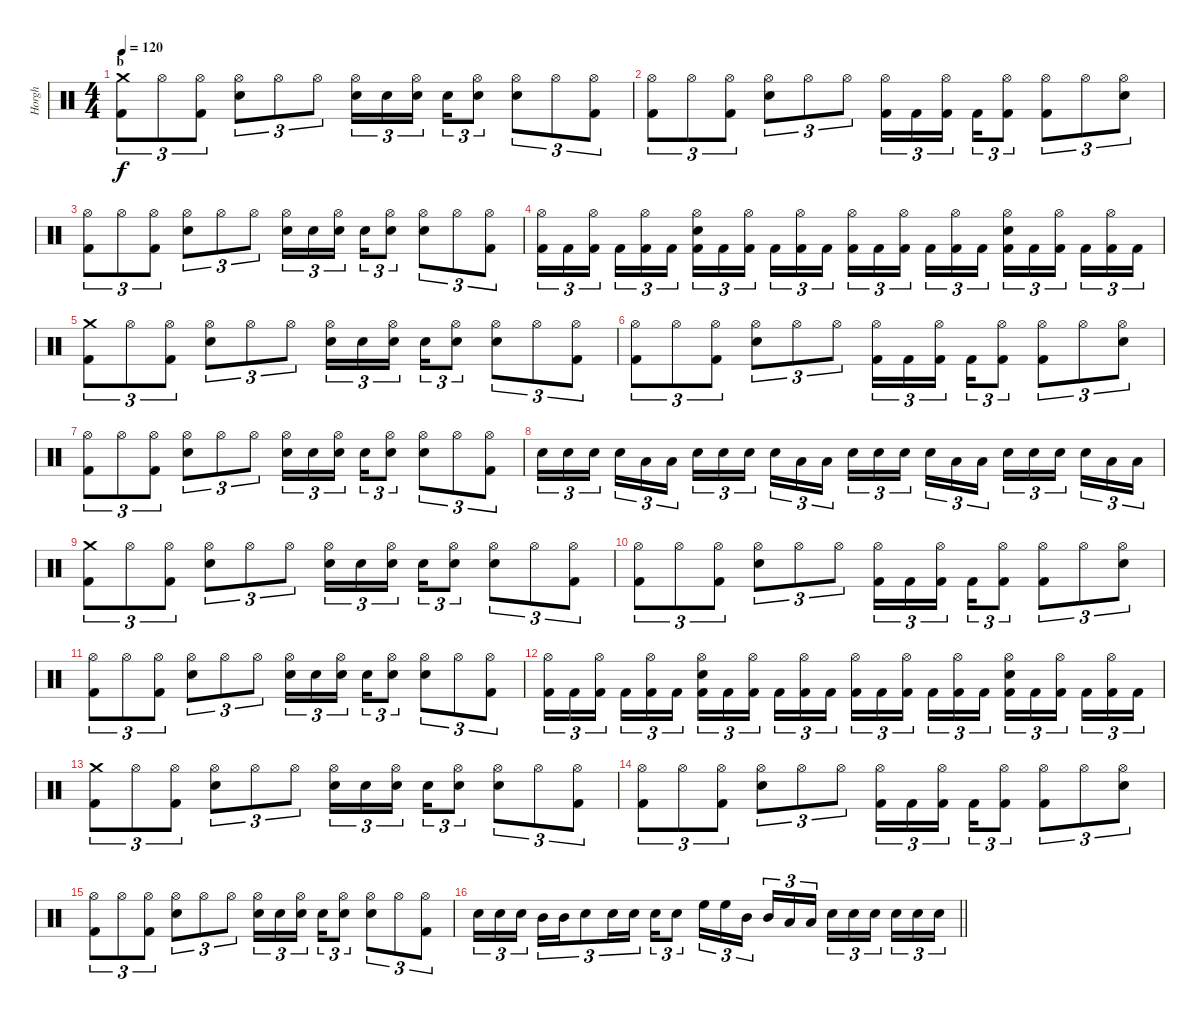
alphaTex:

\track ("Horgh" "Horgh") {instrument percussion}
\staff {score}
\articulation defaults
\ts (4 4)
\section ("" "b")
\tempo 120
\clef neutral
\ks c
("Crash medium (hit)" "Kick (hit) 2").8{tu (3 2) dy f} "Hi-Hat (open)".8{tu (3 2)} ("Hi-Hat (open)" "Kick (hit) 2").8{tu (3 2)} ("Hi-Hat (open)" "Electric Snare (hit)").8{tu (3 2)} "Hi-Hat (open)".8{tu (3 2)} "Hi-Hat (open)".8{tu (3 2)} ("Hi-Hat (open)" "Electric Snare (hit)").16{tu (3 2)} "Electric Snare (hit)".16{tu (3 2)} ("Hi-Hat (open)" "Electric Snare (hit)").16{tu (3 2) beam splitsecondary} "Electric Snare (hit)".16{tu (3 2)} ("Hi-Hat (open)" "Electric Snare (hit)").8{tu (3 2)} ("Hi-Hat (open)" "Electric Snare (hit)").8{tu (3 2)} "Hi-Hat (open)".8{tu (3 2)} ("Hi-Hat (open)" "Kick (hit) 2").8{tu (3 2)} |
("Hi-Hat (open)" "Kick (hit) 2").8{tu (3 2)} "Hi-Hat (open)".8{tu (3 2)} ("Hi-Hat (open)" "Kick (hit) 2").8{tu (3 2)} ("Hi-Hat (open)" "Electric Snare (hit)").8{tu (3 2)} "Hi-Hat (open)".8{tu (3 2)} "Hi-Hat (open)".8{tu (3 2)} ("Hi-Hat (open)" "Kick (hit) 2").16{tu (3 2)} "Kick (hit) 2".16{tu (3 2)} ("Hi-Hat (open)" "Kick (hit) 2").16{tu (3 2) beam splitsecondary} "Kick (hit) 2".16{tu (3 2)} ("Hi-Hat (open)" "Kick (hit) 2").8{tu (3 2)} ("Hi-Hat (open)" "Kick (hit) 2").8{tu (3 2)} "Hi-Hat (open)".8{tu (3 2)} ("Hi-Hat (open)" "Electric Snare (hit)").8{tu (3 2)} |
("Hi-Hat (open)" "Kick (hit) 2").8{tu (3 2)} "Hi-Hat (open)".8{tu (3 2)} ("Hi-Hat (open)" "Kick (hit) 2").8{tu (3 2)} ("Hi-Hat (open)" "Electric Snare (hit)").8{tu (3 2)} "Hi-Hat (open)".8{tu (3 2)} "Hi-Hat (open)".8{tu (3 2)} ("Hi-Hat (open)" "Electric Snare (hit)").16{tu (3 2)} "Electric Snare (hit)".16{tu (3 2)} ("Hi-Hat (open)" "Electric Snare (hit)").16{tu (3 2) beam splitsecondary} "Electric Snare (hit)".16{tu (3 2)} ("Hi-Hat (open)" "Electric Snare (hit)").8{tu (3 2)} ("Hi-Hat (open)" "Electric Snare (hit)").8{tu (3 2)} "Hi-Hat (open)".8{tu (3 2)} ("Hi-Hat (open)" "Kick (hit) 2").8{tu (3 2)} |
("Hi-Hat (open)" "Kick (hit) 2").16{tu (3 2)} "Kick (hit) 2".16{tu (3 2)} ("Hi-Hat (open)" "Kick (hit) 2").16{tu (3 2) beam splitsecondary} "Kick (hit) 2".16{tu (3 2)} ("Hi-Hat (open)" "Kick (hit) 2").16{tu (3 2)} "Kick (hit) 2".16{tu (3 2)} ("Hi-Hat (open)" "Electric Snare (hit)" "Kick (hit) 2").16{tu (3 2)} "Kick (hit) 2".16{tu (3 2)} ("Hi-Hat (open)" "Kick (hit) 2").16{tu (3 2) beam splitsecondary} "Kick (hit) 2".16{tu (3 2)} ("Hi-Hat (open)" "Kick (hit) 2").16{tu (3 2)} "Kick (hit) 2".16{tu (3 2)} ("Hi-Hat (open)" "Kick (hit) 2").16{tu (3 2)} "Kick (hit) 2".16{tu (3 2)} ("Hi-Hat (open)" "Kick (hit) 2").16{tu (3 2) beam splitsecondary} "Kick (hit) 2".16{tu (3 2)} ("Hi-Hat (open)" "Kick (hit) 2").16{tu (3 2)} "Kick (hit) 2".16{tu (3 2)} ("Hi-Hat (open)" "Electric Snare (hit)" "Kick (hit) 2").16{tu (3 2)} "Kick (hit) 2".16{tu (3 2)} ("Hi-Hat (open)" "Kick (hit) 2").16{tu (3 2) beam splitsecondary} "Kick (hit) 2".16{tu (3 2)} ("Hi-Hat (open)" "Kick (hit) 2").16{tu (3 2)} "Kick (hit) 2".16{tu (3 2)} |
("Crash medium (hit)" "Kick (hit) 2").8{tu (3 2)} "Hi-Hat (open)".8{tu (3 2)} ("Hi-Hat (open)" "Kick (hit) 2").8{tu (3 2)} ("Hi-Hat (open)" "Electric Snare (hit)").8{tu (3 2)} "Hi-Hat (open)".8{tu (3 2)} "Hi-Hat (open)".8{tu (3 2)} ("Hi-Hat (open)" "Electric Snare (hit)").16{tu (3 2)} "Electric Snare (hit)".16{tu (3 2)} ("Hi-Hat (open)" "Electric Snare (hit)").16{tu (3 2) beam splitsecondary} "Electric Snare (hit)".16{tu (3 2)} ("Hi-Hat (open)" "Electric Snare (hit)").8{tu (3 2)} ("Hi-Hat (open)" "Electric Snare (hit)").8{tu (3 2)} "Hi-Hat (open)".8{tu (3 2)} ("Hi-Hat (open)" "Kick (hit) 2").8{tu (3 2)} |
("Hi-Hat (open)" "Kick (hit) 2").8{tu (3 2)} "Hi-Hat (open)".8{tu (3 2)} ("Hi-Hat (open)" "Kick (hit) 2").8{tu (3 2)} ("Hi-Hat (open)" "Electric Snare (hit)").8{tu (3 2)} "Hi-Hat (open)".8{tu (3 2)} "Hi-Hat (open)".8{tu (3 2)} ("Hi-Hat (open)" "Kick (hit) 2").16{tu (3 2)} "Kick (hit) 2".16{tu (3 2)} ("Hi-Hat (open)" "Kick (hit) 2").16{tu (3 2) beam splitsecondary} "Kick (hit) 2".16{tu (3 2)} ("Hi-Hat (open)" "Kick (hit) 2").8{tu (3 2)} ("Hi-Hat (open)" "Kick (hit) 2").8{tu (3 2)} "Hi-Hat (open)".8{tu (3 2)} ("Hi-Hat (open)" "Electric Snare (hit)").8{tu (3 2)} |
("Hi-Hat (open)" "Kick (hit) 2").8{tu (3 2)} "Hi-Hat (open)".8{tu (3 2)} ("Hi-Hat (open)" "Kick (hit) 2").8{tu (3 2)} ("Hi-Hat (open)" "Electric Snare (hit)").8{tu (3 2)} "Hi-Hat (open)".8{tu (3 2)} "Hi-Hat (open)".8{tu (3 2)} ("Hi-Hat (open)" "Electric Snare (hit)").16{tu (3 2)} "Electric Snare (hit)".16{tu (3 2)} ("Hi-Hat (open)" "Electric Snare (hit)").16{tu (3 2) beam splitsecondary} "Electric Snare (hit)".16{tu (3 2)} ("Hi-Hat (open)" "Electric Snare (hit)").8{tu (3 2)} ("Hi-Hat (open)" "Electric Snare (hit)").8{tu (3 2)} "Hi-Hat (open)".8{tu (3 2)} ("Hi-Hat (open)" "Kick (hit) 2").8{tu (3 2)} |
"Electric Snare (hit)".16{tu (3 2)} "Electric Snare (hit)".16{tu (3 2)} "Electric Snare (hit)".16{tu (3 2) beam splitsecondary} "Electric Snare (hit)".16{tu (3 2)} "Low Tom (hit)".16{tu (3 2)} "Low Tom (hit)".16{tu (3 2)} "Electric Snare (hit)".16{tu (3 2)} "Electric Snare (hit)".16{tu (3 2)} "Electric Snare (hit)".16{tu (3 2) beam splitsecondary} "Electric Snare (hit)".16{tu (3 2)} "Low Tom (hit)".16{tu (3 2)} "Low Tom (hit)".16{tu (3 2)} "Electric Snare (hit)".16{tu (3 2)} "Electric Snare (hit)".16{tu (3 2)} "Electric Snare (hit)".16{tu (3 2) beam splitsecondary} "Electric Snare (hit)".16{tu (3 2)} "Low Tom (hit)".16{tu (3 2)} "Low Tom (hit)".16{tu (3 2)} "Electric Snare (hit)".16{tu (3 2)} "Electric Snare (hit)".16{tu (3 2)} "Electric Snare (hit)".16{tu (3 2) beam splitsecondary} "Electric Snare (hit)".16{tu (3 2)} "Low Tom (hit)".16{tu (3 2)} "Low Tom (hit)".16{tu (3 2)} |
("Crash medium (hit)" "Kick (hit) 2").8{tu (3 2)} "Hi-Hat (open)".8{tu (3 2)} ("Hi-Hat (open)" "Kick (hit) 2").8{tu (3 2)} ("Hi-Hat (open)" "Electric Snare (hit)").8{tu (3 2)} "Hi-Hat (open)".8{tu (3 2)} "Hi-Hat (open)".8{tu (3 2)} ("Hi-Hat (open)" "Electric Snare (hit)").16{tu (3 2)} "Electric Snare (hit)".16{tu (3 2)} ("Hi-Hat (open)" "Electric Snare (hit)").16{tu (3 2) beam splitsecondary} "Electric Snare (hit)".16{tu (3 2)} ("Hi-Hat (open)" "Electric Snare (hit)").8{tu (3 2)} ("Hi-Hat (open)" "Electric Snare (hit)").8{tu (3 2)} "Hi-Hat (open)".8{tu (3 2)} ("Hi-Hat (open)" "Kick (hit) 2").8{tu (3 2)} |
("Hi-Hat (open)" "Kick (hit) 2").8{tu (3 2)} "Hi-Hat (open)".8{tu (3 2)} ("Hi-Hat (open)" "Kick (hit) 2").8{tu (3 2)} ("Hi-Hat (open)" "Electric Snare (hit)").8{tu (3 2)} "Hi-Hat (open)".8{tu (3 2)} "Hi-Hat (open)".8{tu (3 2)} ("Hi-Hat (open)" "Kick (hit) 2").16{tu (3 2)} "Kick (hit) 2".16{tu (3 2)} ("Hi-Hat (open)" "Kick (hit) 2").16{tu (3 2) beam splitsecondary} "Kick (hit) 2".16{tu (3 2)} ("Hi-Hat (open)" "Kick (hit) 2").8{tu (3 2)} ("Hi-Hat (open)" "Kick (hit) 2").8{tu (3 2)} "Hi-Hat (open)".8{tu (3 2)} ("Hi-Hat (open)" "Electric Snare (hit)").8{tu (3 2)} |
("Hi-Hat (open)" "Kick (hit) 2").8{tu (3 2)} "Hi-Hat (open)".8{tu (3 2)} ("Hi-Hat (open)" "Kick (hit) 2").8{tu (3 2)} ("Hi-Hat (open)" "Electric Snare (hit)").8{tu (3 2)} "Hi-Hat (open)".8{tu (3 2)} "Hi-Hat (open)".8{tu (3 2)} ("Hi-Hat (open)" "Electric Snare (hit)").16{tu (3 2)} "Electric Snare (hit)".16{tu (3 2)} ("Hi-Hat (open)" "Electric Snare (hit)").16{tu (3 2) beam splitsecondary} "Electric Snare (hit)".16{tu (3 2)} ("Hi-Hat (open)" "Electric Snare (hit)").8{tu (3 2)} ("Hi-Hat (open)" "Electric Snare (hit)").8{tu (3 2)} "Hi-Hat (open)".8{tu (3 2)} ("Hi-Hat (open)" "Kick (hit) 2").8{tu (3 2)} |
("Hi-Hat (open)" "Kick (hit) 2").16{tu (3 2)} "Kick (hit) 2".16{tu (3 2)} ("Hi-Hat (open)" "Kick (hit) 2").16{tu (3 2) beam splitsecondary} "Kick (hit) 2".16{tu (3 2)} ("Hi-Hat (open)" "Kick (hit) 2").16{tu (3 2)} "Kick (hit) 2".16{tu (3 2)} ("Hi-Hat (open)" "Electric Snare (hit)" "Kick (hit) 2").16{tu (3 2)} "Kick (hit) 2".16{tu (3 2)} ("Hi-Hat (open)" "Kick (hit) 2").16{tu (3 2) beam splitsecondary} "Kick (hit) 2".16{tu (3 2)} ("Hi-Hat (open)" "Kick (hit) 2").16{tu (3 2)} "Kick (hit) 2".16{tu (3 2)} ("Hi-Hat (open)" "Kick (hit) 2").16{tu (3 2)} "Kick (hit) 2".16{tu (3 2)} ("Hi-Hat (open)" "Kick (hit) 2").16{tu (3 2) beam splitsecondary} "Kick (hit) 2".16{tu (3 2)} ("Hi-Hat (open)" "Kick (hit) 2").16{tu (3 2)} "Kick (hit) 2".16{tu (3 2)} ("Hi-Hat (open)" "Electric Snare (hit)" "Kick (hit) 2").16{tu (3 2)} "Kick (hit) 2".16{tu (3 2)} ("Hi-Hat (open)" "Kick (hit) 2").16{tu (3 2) beam splitsecondary} "Kick (hit) 2".16{tu (3 2)} ("Hi-Hat (open)" "Kick (hit) 2").16{tu (3 2)} "Kick (hit) 2".16{tu (3 2)} |
("Crash medium (hit)" "Kick (hit) 2").8{tu (3 2)} "Hi-Hat (open)".8{tu (3 2)} ("Hi-Hat (open)" "Kick (hit) 2").8{tu (3 2)} ("Hi-Hat (open)" "Electric Snare (hit)").8{tu (3 2)} "Hi-Hat (open)".8{tu (3 2)} "Hi-Hat (open)".8{tu (3 2)} ("Hi-Hat (open)" "Electric Snare (hit)").16{tu (3 2)} "Electric Snare (hit)".16{tu (3 2)} ("Hi-Hat (open)" "Electric Snare (hit)").16{tu (3 2) beam splitsecondary} "Electric Snare (hit)".16{tu (3 2)} ("Hi-Hat (open)" "Electric Snare (hit)").8{tu (3 2)} ("Hi-Hat (open)" "Electric Snare (hit)").8{tu (3 2)} "Hi-Hat (open)".8{tu (3 2)} ("Hi-Hat (open)" "Kick (hit) 2").8{tu (3 2)} |
("Hi-Hat (open)" "Kick (hit) 2").8{tu (3 2)} "Hi-Hat (open)".8{tu (3 2)} ("Hi-Hat (open)" "Kick (hit) 2").8{tu (3 2)} ("Hi-Hat (open)" "Electric Snare (hit)").8{tu (3 2)} "Hi-Hat (open)".8{tu (3 2)} "Hi-Hat (open)".8{tu (3 2)} ("Hi-Hat (open)" "Kick (hit) 2").16{tu (3 2)} "Kick (hit) 2".16{tu (3 2)} ("Hi-Hat (open)" "Kick (hit) 2").16{tu (3 2) beam splitsecondary} "Kick (hit) 2".16{tu (3 2)} ("Hi-Hat (open)" "Kick (hit) 2").8{tu (3 2)} ("Hi-Hat (open)" "Kick (hit) 2").8{tu (3 2)} "Hi-Hat (open)".8{tu (3 2)} ("Hi-Hat (open)" "Electric Snare (hit)").8{tu (3 2)} |
("Hi-Hat (open)" "Kick (hit) 2").8{tu (3 2)} "Hi-Hat (open)".8{tu (3 2)} ("Hi-Hat (open)" "Kick (hit) 2").8{tu (3 2)} ("Hi-Hat (open)" "Electric Snare (hit)").8{tu (3 2)} "Hi-Hat (open)".8{tu (3 2)} "Hi-Hat (open)".8{tu (3 2)} ("Hi-Hat (open)" "Electric Snare (hit)").16{tu (3 2)} "Electric Snare (hit)".16{tu (3 2)} ("Hi-Hat (open)" "Electric Snare (hit)").16{tu (3 2) beam splitsecondary} "Electric Snare (hit)".16{tu (3 2)} ("Hi-Hat (open)" "Electric Snare (hit)").8{tu (3 2)} ("Hi-Hat (open)" "Electric Snare (hit)").8{tu (3 2)} "Hi-Hat (open)".8{tu (3 2)} ("Hi-Hat (open)" "Kick (hit) 2").8{tu (3 2)} |
\barLineRight lightlight "Electric Snare (hit)".16{tu (3 2)} "Electric Snare (hit)".16{tu (3 2)} "Electric Snare (hit)".16{tu (3 2) beam splitsecondary} "Mid Tom (hit)".16{tu (3 2)} "Mid Tom (hit)".16{tu (3 2)} "Electric Snare (hit)".8{tu (3 2)} "Electric Snare (hit)".16{tu (3 2)} "Electric Snare (hit)".16{tu (3 2) beam splitsecondary} "Electric Snare (hit)".16{tu (3 2)} "Electric Snare (hit)".8{tu (3 2)} "High Floor Tom (hit)".16{tu (3 2)} "High Floor Tom (hit)".16{tu (3 2)} "Mid Tom (hit)".16{tu (3 2) beam splitsecondary} "Mid Tom (hit)".16{tu (3 2)} "Low Tom (hit)".16{tu (3 2)} "Low Tom (hit)".16{tu (3 2)} "Electric Snare (hit)".16{tu (3 2)} "Electric Snare (hit)".16{tu (3 2)} "Electric Snare (hit)".16{tu (3 2) beam splitsecondary} "Electric Snare (hit)".16{tu (3 2)} "Electric Snare (hit)".16{tu (3 2)} "Electric Snare (hit)".16{tu (3 2)}
